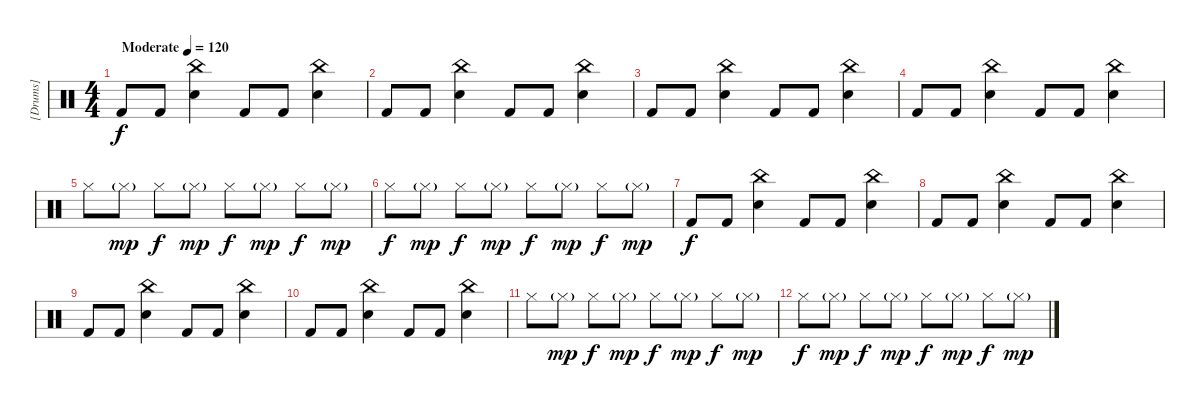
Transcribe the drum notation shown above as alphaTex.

\track ("[Drums]" "[Drums]") {instrument percussion}
\staff {score}
\articulation defaults
\ts (4 4)
\tempo (120 "Moderate")
\clef neutral
\ks c "Kick (hit) 2".8{dy f} "Kick (hit) 2".8
("China (hit)" "Electric Snare (hit)").4 "Kick (hit) 2".8 "Kick (hit) 2".8 ("China (hit)" "Electric Snare (hit)").4 |
"Kick (hit) 2".8 "Kick (hit) 2".8 ("China (hit)" "Electric Snare (hit)").4 "Kick (hit) 2".8 "Kick (hit) 2".8 ("China (hit)" "Electric Snare (hit)").4 |
"Kick (hit) 2".8 "Kick (hit) 2".8 ("China (hit)" "Electric Snare (hit)").4 "Kick (hit) 2".8 "Kick (hit) 2".8 ("China (hit)" "Electric Snare (hit)").4 |
"Kick (hit) 2".8 "Kick (hit) 2".8 ("China (hit)" "Electric Snare (hit)").4 "Kick (hit) 2".8 "Kick (hit) 2".8 ("China (hit)" "Electric Snare (hit)").4 |
"Hi-Hat (closed)".8 "Hi-Hat (closed)"{g}.8{dy mp} "Hi-Hat (closed)".8{dy f} "Hi-Hat (closed)"{g}.8{dy mp} "Hi-Hat (closed)".8{dy f} "Hi-Hat (closed)"{g}.8{dy mp} "Hi-Hat (closed)".8{dy f} "Hi-Hat (closed)"{g}.8{dy mp} |
"Hi-Hat (closed)".8{dy f} "Hi-Hat (closed)"{g}.8{dy mp} "Hi-Hat (closed)".8{dy f} "Hi-Hat (closed)"{g}.8{dy mp} "Hi-Hat (closed)".8{dy f} "Hi-Hat (closed)"{g}.8{dy mp} "Hi-Hat (closed)".8{dy f} "Hi-Hat (closed)"{g}.8{dy mp} |
"Kick (hit) 2".8{dy f} "Kick (hit) 2".8 ("China (hit)" "Electric Snare (hit)").4 "Kick (hit) 2".8 "Kick (hit) 2".8 ("China (hit)" "Electric Snare (hit)").4 |
"Kick (hit) 2".8 "Kick (hit) 2".8 ("China (hit)" "Electric Snare (hit)").4 "Kick (hit) 2".8 "Kick (hit) 2".8 ("China (hit)" "Electric Snare (hit)").4 |
"Kick (hit) 2".8 "Kick (hit) 2".8 ("China (hit)" "Electric Snare (hit)").4 "Kick (hit) 2".8 "Kick (hit) 2".8 ("China (hit)" "Electric Snare (hit)").4 |
"Kick (hit) 2".8 "Kick (hit) 2".8 ("China (hit)" "Electric Snare (hit)").4 "Kick (hit) 2".8 "Kick (hit) 2".8 ("China (hit)" "Electric Snare (hit)").4 |
"Hi-Hat (closed)".8 "Hi-Hat (closed)"{g}.8{dy mp} "Hi-Hat (closed)".8{dy f} "Hi-Hat (closed)"{g}.8{dy mp} "Hi-Hat (closed)".8{dy f} "Hi-Hat (closed)"{g}.8{dy mp} "Hi-Hat (closed)".8{dy f} "Hi-Hat (closed)"{g}.8{dy mp} |
"Hi-Hat (closed)".8{dy f} "Hi-Hat (closed)"{g}.8{dy mp} "Hi-Hat (closed)".8{dy f} "Hi-Hat (closed)"{g}.8{dy mp} "Hi-Hat (closed)".8{dy f} "Hi-Hat (closed)"{g}.8{dy mp} "Hi-Hat (closed)".8{dy f} "Hi-Hat (closed)"{g}.8{dy mp}
